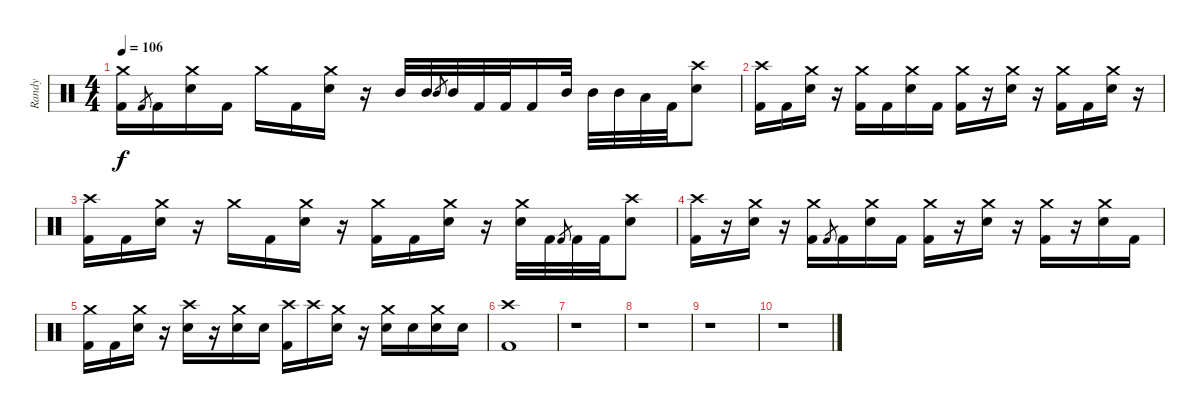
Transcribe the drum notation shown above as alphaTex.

\track ("Randy" "Randy") {instrument percussion}
\staff {score}
\articulation defaults
\ts (4 4)
\tempo 106
\clef neutral
\ks c
("Crash medium (hit)" "Kick (hit) 2").16{dy f} "Kick (hit) 2".8{gr} "Kick (hit) 2".16 ("Crash medium (hit)" "Electric Snare (hit)").16 "Kick (hit) 2".16 "Crash medium (hit)".16 "Kick (hit) 2".16 ("Crash medium (hit)" "Electric Snare (hit)").16 r.16 "Mid Tom (hit)".32 "Mid Tom (hit)".32 "Mid Tom (hit)".8{gr} "Mid Tom (hit)".32 "Kick (hit) 2".32 "Kick (hit) 2".32 "Kick (hit) 2".16 "Mid Tom (hit)".32 "Mid Tom (hit)".32 "Mid Tom (hit)".32 "Low Tom (hit)".32 "Kick (hit) 2".32 ("Crash high (hit)" "Electric Snare (hit)").8 |
("Crash high (hit)" "Kick (hit) 2").16 "Kick (hit) 2".16 ("Crash medium (hit)" "Electric Snare (hit)").16 r.16 ("Crash medium (hit)" "Kick (hit) 2").16 "Kick (hit) 2".16 ("Crash medium (hit)" "Electric Snare (hit)").16 "Kick (hit) 2".16 ("Crash medium (hit)" "Kick (hit) 2").16 r.16 ("Crash medium (hit)" "Electric Snare (hit)").16 r.16 ("Crash medium (hit)" "Kick (hit) 2").16 "Kick (hit) 2".16 ("Crash medium (hit)" "Electric Snare (hit)").16 r.16 |
("Crash high (hit)" "Kick (hit) 2").16 "Kick (hit) 2".16 ("Crash medium (hit)" "Electric Snare (hit)").16 r.16 "Crash medium (hit)".16 "Kick (hit) 2".16 ("Crash medium (hit)" "Electric Snare (hit)").16 r.16 ("Crash medium (hit)" "Kick (hit) 2").16 "Kick (hit) 2".16 ("Crash medium (hit)" "Electric Snare (hit)").16 r.16 ("Crash medium (hit)" "Electric Snare (hit)").32 "Kick (hit) 2".32 "Kick (hit) 2".8{gr} "Kick (hit) 2".32 "Kick (hit) 2".32 ("Crash high (hit)" "Electric Snare (hit)").8 |
("Crash high (hit)" "Kick (hit) 2").16 r.16 ("Crash medium (hit)" "Electric Snare (hit)").16 r.16 ("Crash medium (hit)" "Kick (hit) 2").16 "Kick (hit) 2".8{gr} "Kick (hit) 2".16 ("Crash medium (hit)" "Electric Snare (hit)").16 "Kick (hit) 2".16 ("Crash medium (hit)" "Kick (hit) 2").16 r.16 ("Crash medium (hit)" "Electric Snare (hit)").16 r.16 ("Crash medium (hit)" "Kick (hit) 2").16 r.16 ("Crash medium (hit)" "Electric Snare (hit)").16 "Kick (hit) 2".16 |
("Crash medium (hit)" "Kick (hit) 2").16 "Kick (hit) 2".16 ("Crash medium (hit)" "Electric Snare (hit)").16 r.16 ("Crash high (hit)" "Electric Snare (hit)").16 r.16 ("Crash medium (hit)" "Electric Snare (hit)").16 "Electric Snare (hit)".16 ("Crash high (hit)" "Kick (hit) 2").16 "Crash high (hit)".16 ("Crash medium (hit)" "Electric Snare (hit)").16 r.16 ("Crash medium (hit)" "Electric Snare (hit)").16 "Electric Snare (hit)".16 ("Crash medium (hit)" "Electric Snare (hit)").16 "Electric Snare (hit)".16 |
("Crash high (hit)" "Kick (hit) 2").1 |
r.1 |
r.1 |
r.1 |
r.1
